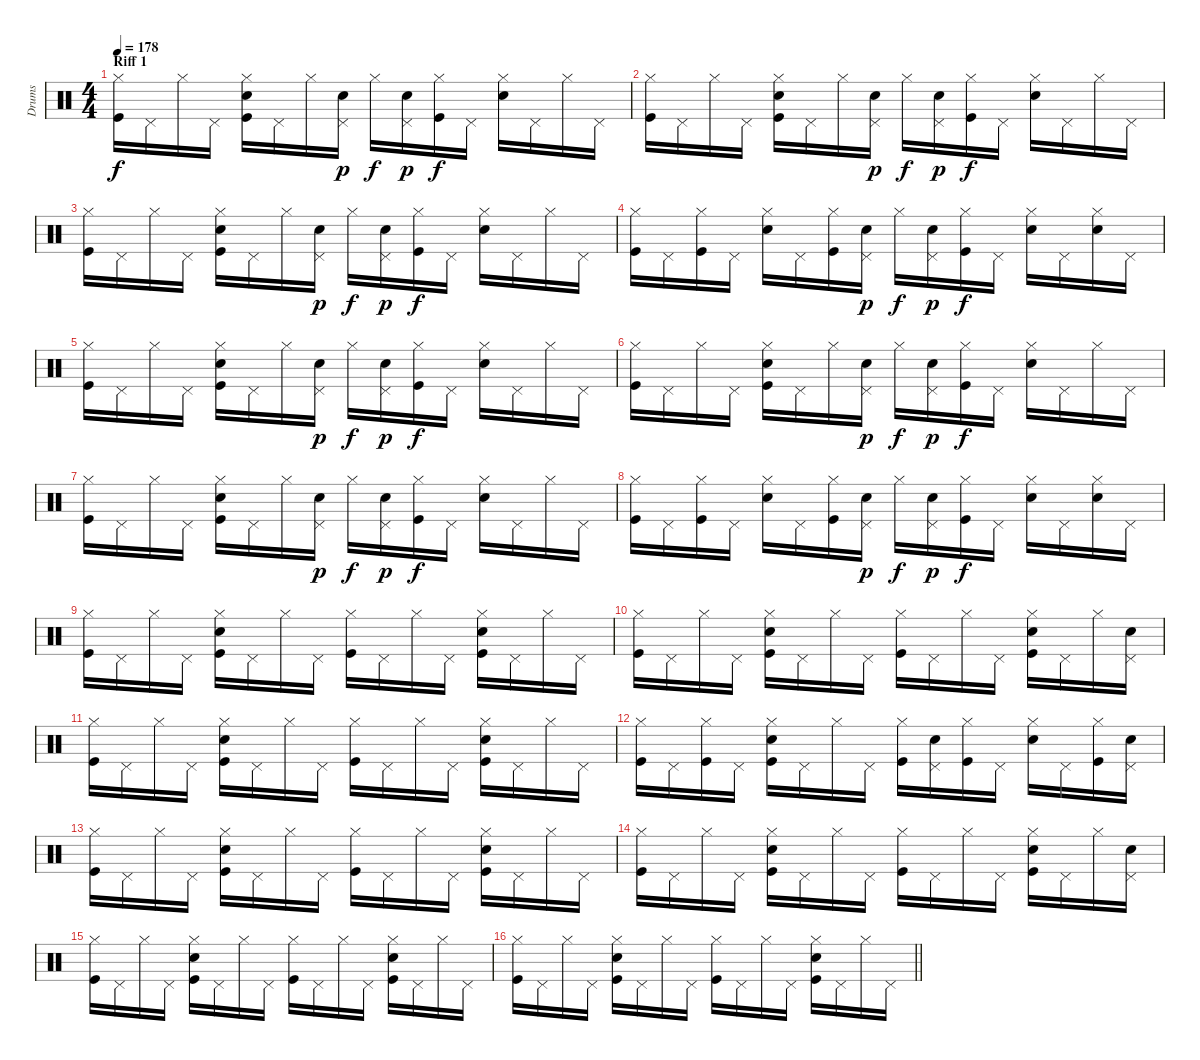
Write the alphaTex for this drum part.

\track ("Drums" "Drums") {instrument percussion}
\staff {score}
\articulation defaults
\ts (4 4)
\section ("" "Riff 1")
\tempo 178
\clef neutral
\ks c
("Kick (hit)" "Hi-Hat (closed)").16{dy f} "Pedal Hi-Hat (hit)".16 "Hi-Hat (closed)".16 "Pedal Hi-Hat (hit)".16 ("Kick (hit)" "Electric Snare (hit)" "Hi-Hat (closed)").16 "Pedal Hi-Hat (hit)".16 "Hi-Hat (closed)".16 ("Electric Snare (hit)" "Pedal Hi-Hat (hit)").16{dy p} "Hi-Hat (closed)".16{dy f} ("Electric Snare (hit)" "Pedal Hi-Hat (hit)").16{dy p} ("Kick (hit)" "Hi-Hat (closed)").16{dy f} "Pedal Hi-Hat (hit)".16 ("Electric Snare (hit)" "Hi-Hat (closed)").16 "Pedal Hi-Hat (hit)".16 "Hi-Hat (closed)".16 "Pedal Hi-Hat (hit)".16 |
("Kick (hit)" "Hi-Hat (closed)").16 "Pedal Hi-Hat (hit)".16 "Hi-Hat (closed)".16 "Pedal Hi-Hat (hit)".16 ("Kick (hit)" "Electric Snare (hit)" "Hi-Hat (closed)").16 "Pedal Hi-Hat (hit)".16 "Hi-Hat (closed)".16 ("Electric Snare (hit)" "Pedal Hi-Hat (hit)").16{dy p} "Hi-Hat (closed)".16{dy f} ("Electric Snare (hit)" "Pedal Hi-Hat (hit)").16{dy p} ("Kick (hit)" "Hi-Hat (closed)").16{dy f} "Pedal Hi-Hat (hit)".16 ("Electric Snare (hit)" "Hi-Hat (closed)").16 "Pedal Hi-Hat (hit)".16 "Hi-Hat (closed)".16 "Pedal Hi-Hat (hit)".16 |
("Kick (hit)" "Hi-Hat (closed)").16 "Pedal Hi-Hat (hit)".16 "Hi-Hat (closed)".16 "Pedal Hi-Hat (hit)".16 ("Kick (hit)" "Electric Snare (hit)" "Hi-Hat (closed)").16 "Pedal Hi-Hat (hit)".16 "Hi-Hat (closed)".16 ("Electric Snare (hit)" "Pedal Hi-Hat (hit)").16{dy p} "Hi-Hat (closed)".16{dy f} ("Electric Snare (hit)" "Pedal Hi-Hat (hit)").16{dy p} ("Kick (hit)" "Hi-Hat (closed)").16{dy f} "Pedal Hi-Hat (hit)".16 ("Electric Snare (hit)" "Hi-Hat (closed)").16 "Pedal Hi-Hat (hit)".16 "Hi-Hat (closed)".16 "Pedal Hi-Hat (hit)".16 |
("Kick (hit)" "Hi-Hat (closed)").16 "Pedal Hi-Hat (hit)".16 ("Kick (hit)" "Hi-Hat (closed)").16 "Pedal Hi-Hat (hit)".16 ("Electric Snare (hit)" "Hi-Hat (closed)").16 "Pedal Hi-Hat (hit)".16 ("Kick (hit)" "Hi-Hat (closed)").16 ("Electric Snare (hit)" "Pedal Hi-Hat (hit)").16{dy p} "Hi-Hat (closed)".16{dy f} ("Electric Snare (hit)" "Pedal Hi-Hat (hit)").16{dy p} ("Kick (hit)" "Hi-Hat (closed)").16{dy f} "Pedal Hi-Hat (hit)".16 ("Electric Snare (hit)" "Hi-Hat (closed)").16 "Pedal Hi-Hat (hit)".16 ("Electric Snare (hit)" "Hi-Hat (closed)").16 "Pedal Hi-Hat (hit)".16 |
("Kick (hit)" "Hi-Hat (closed)").16 "Pedal Hi-Hat (hit)".16 "Hi-Hat (closed)".16 "Pedal Hi-Hat (hit)".16 ("Kick (hit)" "Electric Snare (hit)" "Hi-Hat (closed)").16 "Pedal Hi-Hat (hit)".16 "Hi-Hat (closed)".16 ("Electric Snare (hit)" "Pedal Hi-Hat (hit)").16{dy p} "Hi-Hat (closed)".16{dy f} ("Electric Snare (hit)" "Pedal Hi-Hat (hit)").16{dy p} ("Kick (hit)" "Hi-Hat (closed)").16{dy f} "Pedal Hi-Hat (hit)".16 ("Electric Snare (hit)" "Hi-Hat (closed)").16 "Pedal Hi-Hat (hit)".16 "Hi-Hat (closed)".16 "Pedal Hi-Hat (hit)".16 |
("Kick (hit)" "Hi-Hat (closed)").16 "Pedal Hi-Hat (hit)".16 "Hi-Hat (closed)".16 "Pedal Hi-Hat (hit)".16 ("Kick (hit)" "Electric Snare (hit)" "Hi-Hat (closed)").16 "Pedal Hi-Hat (hit)".16 "Hi-Hat (closed)".16 ("Electric Snare (hit)" "Pedal Hi-Hat (hit)").16{dy p} "Hi-Hat (closed)".16{dy f} ("Electric Snare (hit)" "Pedal Hi-Hat (hit)").16{dy p} ("Kick (hit)" "Hi-Hat (closed)").16{dy f} "Pedal Hi-Hat (hit)".16 ("Electric Snare (hit)" "Hi-Hat (closed)").16 "Pedal Hi-Hat (hit)".16 "Hi-Hat (closed)".16 "Pedal Hi-Hat (hit)".16 |
("Kick (hit)" "Hi-Hat (closed)").16 "Pedal Hi-Hat (hit)".16 "Hi-Hat (closed)".16 "Pedal Hi-Hat (hit)".16 ("Kick (hit)" "Electric Snare (hit)" "Hi-Hat (closed)").16 "Pedal Hi-Hat (hit)".16 "Hi-Hat (closed)".16 ("Electric Snare (hit)" "Pedal Hi-Hat (hit)").16{dy p} "Hi-Hat (closed)".16{dy f} ("Electric Snare (hit)" "Pedal Hi-Hat (hit)").16{dy p} ("Kick (hit)" "Hi-Hat (closed)").16{dy f} "Pedal Hi-Hat (hit)".16 ("Electric Snare (hit)" "Hi-Hat (closed)").16 "Pedal Hi-Hat (hit)".16 "Hi-Hat (closed)".16 "Pedal Hi-Hat (hit)".16 |
("Kick (hit)" "Hi-Hat (closed)").16 "Pedal Hi-Hat (hit)".16 ("Kick (hit)" "Hi-Hat (closed)").16 "Pedal Hi-Hat (hit)".16 ("Electric Snare (hit)" "Hi-Hat (closed)").16 "Pedal Hi-Hat (hit)".16 ("Kick (hit)" "Hi-Hat (closed)").16 ("Electric Snare (hit)" "Pedal Hi-Hat (hit)").16{dy p} "Hi-Hat (closed)".16{dy f} ("Electric Snare (hit)" "Pedal Hi-Hat (hit)").16{dy p} ("Kick (hit)" "Hi-Hat (closed)").16{dy f} "Pedal Hi-Hat (hit)".16 ("Electric Snare (hit)" "Hi-Hat (closed)").16 "Pedal Hi-Hat (hit)".16 ("Electric Snare (hit)" "Hi-Hat (closed)").16 "Pedal Hi-Hat (hit)".16 |
("Kick (hit)" "Hi-Hat (closed)").16 "Pedal Hi-Hat (hit)".16 "Hi-Hat (closed)".16 "Pedal Hi-Hat (hit)".16 ("Kick (hit)" "Electric Snare (hit)" "Hi-Hat (closed)").16 "Pedal Hi-Hat (hit)".16 "Hi-Hat (closed)".16 "Pedal Hi-Hat (hit)".16 ("Kick (hit)" "Hi-Hat (closed)").16 "Pedal Hi-Hat (hit)".16 "Hi-Hat (closed)".16 "Pedal Hi-Hat (hit)".16 ("Kick (hit)" "Electric Snare (hit)" "Hi-Hat (closed)").16 "Pedal Hi-Hat (hit)".16 "Hi-Hat (closed)".16 "Pedal Hi-Hat (hit)".16 |
("Kick (hit)" "Hi-Hat (closed)").16 "Pedal Hi-Hat (hit)".16 "Hi-Hat (closed)".16 "Pedal Hi-Hat (hit)".16 ("Kick (hit)" "Electric Snare (hit)" "Hi-Hat (closed)").16 "Pedal Hi-Hat (hit)".16 "Hi-Hat (closed)".16 "Pedal Hi-Hat (hit)".16 ("Kick (hit)" "Hi-Hat (closed)").16 "Pedal Hi-Hat (hit)".16 "Hi-Hat (closed)".16 "Pedal Hi-Hat (hit)".16 ("Kick (hit)" "Electric Snare (hit)" "Hi-Hat (closed)").16 "Pedal Hi-Hat (hit)".16 "Hi-Hat (closed)".16 ("Electric Snare (hit)" "Pedal Hi-Hat (hit)").16 |
("Kick (hit)" "Hi-Hat (closed)").16 "Pedal Hi-Hat (hit)".16 "Hi-Hat (closed)".16 "Pedal Hi-Hat (hit)".16 ("Kick (hit)" "Electric Snare (hit)" "Hi-Hat (closed)").16 "Pedal Hi-Hat (hit)".16 "Hi-Hat (closed)".16 "Pedal Hi-Hat (hit)".16 ("Kick (hit)" "Hi-Hat (closed)").16 "Pedal Hi-Hat (hit)".16 "Hi-Hat (closed)".16 "Pedal Hi-Hat (hit)".16 ("Kick (hit)" "Electric Snare (hit)" "Hi-Hat (closed)").16 "Pedal Hi-Hat (hit)".16 "Hi-Hat (closed)".16 "Pedal Hi-Hat (hit)".16 |
("Kick (hit)" "Hi-Hat (closed)").16 "Pedal Hi-Hat (hit)".16 ("Kick (hit)" "Hi-Hat (closed)").16 "Pedal Hi-Hat (hit)".16 ("Kick (hit)" "Electric Snare (hit)" "Hi-Hat (closed)").16 "Pedal Hi-Hat (hit)".16 "Hi-Hat (closed)".16 "Pedal Hi-Hat (hit)".16 ("Kick (hit)" "Hi-Hat (closed)").16 ("Electric Snare (hit)" "Pedal Hi-Hat (hit)").16 ("Kick (hit)" "Hi-Hat (closed)").16 "Pedal Hi-Hat (hit)".16 ("Electric Snare (hit)" "Hi-Hat (closed)").16 "Pedal Hi-Hat (hit)".16 ("Kick (hit)" "Hi-Hat (closed)").16 ("Electric Snare (hit)" "Pedal Hi-Hat (hit)").16 |
("Kick (hit)" "Hi-Hat (closed)").16 "Pedal Hi-Hat (hit)".16 "Hi-Hat (closed)".16 "Pedal Hi-Hat (hit)".16 ("Kick (hit)" "Electric Snare (hit)" "Hi-Hat (closed)").16 "Pedal Hi-Hat (hit)".16 "Hi-Hat (closed)".16 "Pedal Hi-Hat (hit)".16 ("Kick (hit)" "Hi-Hat (closed)").16 "Pedal Hi-Hat (hit)".16 "Hi-Hat (closed)".16 "Pedal Hi-Hat (hit)".16 ("Kick (hit)" "Electric Snare (hit)" "Hi-Hat (closed)").16 "Pedal Hi-Hat (hit)".16 "Hi-Hat (closed)".16 "Pedal Hi-Hat (hit)".16 |
("Kick (hit)" "Hi-Hat (closed)").16 "Pedal Hi-Hat (hit)".16 "Hi-Hat (closed)".16 "Pedal Hi-Hat (hit)".16 ("Kick (hit)" "Electric Snare (hit)" "Hi-Hat (closed)").16 "Pedal Hi-Hat (hit)".16 "Hi-Hat (closed)".16 "Pedal Hi-Hat (hit)".16 ("Kick (hit)" "Hi-Hat (closed)").16 "Pedal Hi-Hat (hit)".16 "Hi-Hat (closed)".16 "Pedal Hi-Hat (hit)".16 ("Kick (hit)" "Electric Snare (hit)" "Hi-Hat (closed)").16 "Pedal Hi-Hat (hit)".16 "Hi-Hat (closed)".16 ("Electric Snare (hit)" "Pedal Hi-Hat (hit)").16 |
("Kick (hit)" "Hi-Hat (closed)").16 "Pedal Hi-Hat (hit)".16 "Hi-Hat (closed)".16 "Pedal Hi-Hat (hit)".16 ("Kick (hit)" "Electric Snare (hit)" "Hi-Hat (closed)").16 "Pedal Hi-Hat (hit)".16 "Hi-Hat (closed)".16 "Pedal Hi-Hat (hit)".16 ("Kick (hit)" "Hi-Hat (closed)").16 "Pedal Hi-Hat (hit)".16 "Hi-Hat (closed)".16 "Pedal Hi-Hat (hit)".16 ("Kick (hit)" "Electric Snare (hit)" "Hi-Hat (closed)").16 "Pedal Hi-Hat (hit)".16 "Hi-Hat (closed)".16 "Pedal Hi-Hat (hit)".16 |
\barLineRight lightlight
("Kick (hit)" "Hi-Hat (closed)").16 "Pedal Hi-Hat (hit)".16 "Hi-Hat (closed)".16 "Pedal Hi-Hat (hit)".16 ("Kick (hit)" "Electric Snare (hit)" "Hi-Hat (closed)").16 "Pedal Hi-Hat (hit)".16 "Hi-Hat (closed)".16 "Pedal Hi-Hat (hit)".16 ("Kick (hit)" "Hi-Hat (closed)").16 "Pedal Hi-Hat (hit)".16 "Hi-Hat (closed)".16 "Pedal Hi-Hat (hit)".16 ("Kick (hit)" "Electric Snare (hit)" "Hi-Hat (closed)").16 "Pedal Hi-Hat (hit)".16 "Hi-Hat (closed)".16 "Pedal Hi-Hat (hit)".16
